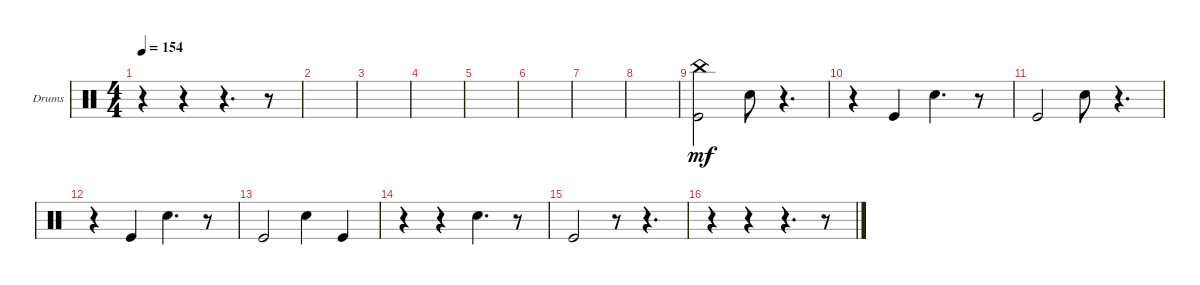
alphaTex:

\defaultSystemsLayout 4
\bracketExtendMode groupsimilarinstruments
\firstSystemTrackNameOrientation horizontal
\otherSystemsTrackNameOrientation horizontal
\track ("Drumkit" "Drums") {instrument percussion}
\staff {score}
\articulation defaults
\ts (4 4)
\tempo 154
\clef neutral
\ks c
r.4{dy mf} r.4 r.4{d} r.8 |
|
|
|
|
|
|
|
("Kick (hit)" "China (hit)").2 "Snare (hit) 2".8 r.4{d} |
r.4 "Kick (hit)".4 "Snare (hit) 2".4{d} r.8 |
"Kick (hit)".2 "Snare (hit) 2".8 r.4{d} |
r.4 "Kick (hit)".4 "Snare (hit) 2".4{d} r.8 |
"Kick (hit)".2 "Snare (hit) 2".4 "Kick (hit)".4 |
r.4 r.4 "Snare (hit) 2".4{d} r.8 |
"Kick (hit)".2 r.8 r.4{d} |
r.4 r.4 r.4{d} r.8
